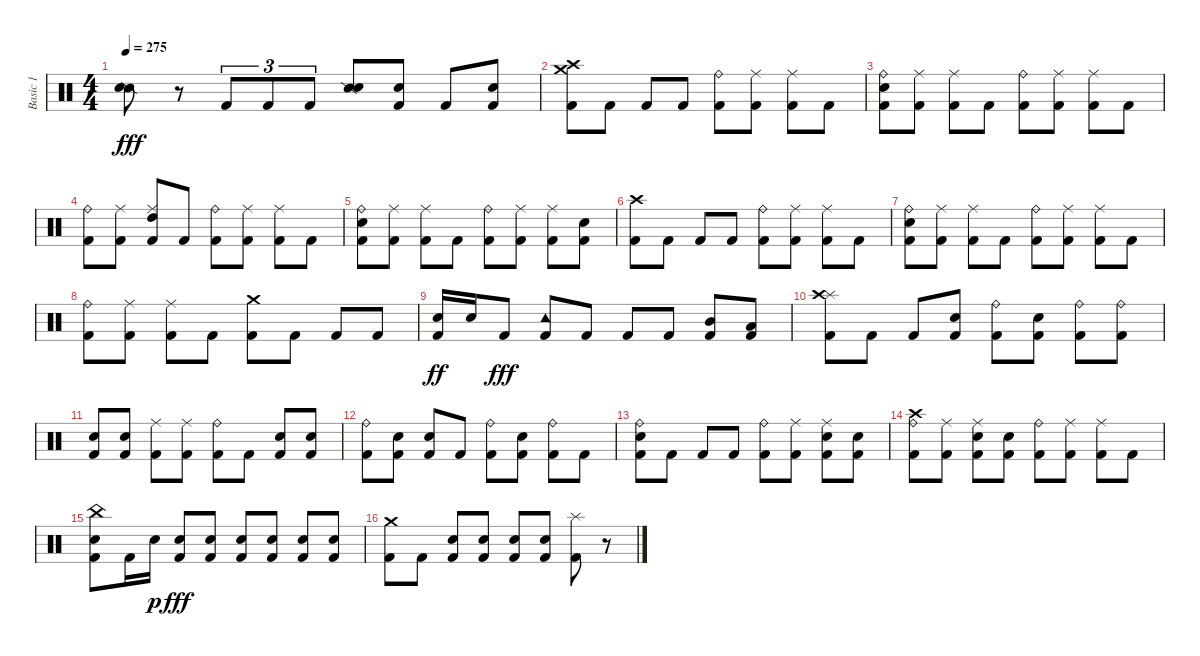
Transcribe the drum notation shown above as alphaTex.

\track ("Basic 1" "Basic 1") {instrument percussion}
\staff {score}
\articulation defaults
\ts (4 4)
\tempo 275
\clef neutral
\ks c
("Snare (side stick) 2" "Snare (hit) 2").8{dy fff} r.8 "Kick (hit) 2".8{tu (3 2)} "Kick (hit) 2".8{tu (3 2)} "Kick (hit) 2".8{tu (3 2)} ("Snare (side stick) 2" "Snare (hit) 2").8 ("Snare (hit) 2" "Kick (hit) 2").8 "Kick (hit) 2".8 ("Kick (hit) 2" "Snare (hit) 2").8 |
("Crash high (hit)" "Kick (hit) 2" "Crash medium (hit)").8 "Kick (hit) 2".8 "Kick (hit) 2".8 "Kick (hit) 2".8 ("Kick (hit) 2" "Ride (bell)").8 ("Ride (middle)" "Kick (hit) 2").8 ("Ride (middle)" "Kick (hit) 2").8 "Kick (hit) 2".8 |
("Kick (hit) 2" "Snare (hit) 2" "Ride (bell)").8 ("Ride (middle)" "Kick (hit) 2").8 ("Ride (middle)" "Kick (hit) 2").8 "Kick (hit) 2".8 ("Kick (hit) 2" "Ride (bell)").8 ("Ride (middle)" "Kick (hit) 2").8 ("Ride (middle)" "Kick (hit) 2").8 "Kick (hit) 2".8 |
("Kick (hit) 2" "Ride (bell)").8 ("Ride (middle)" "Kick (hit) 2").8 ("High Tom (hit)" "Ride (middle)" "Kick (hit) 2").8 "Kick (hit) 2".8 ("Kick (hit) 2" "Ride (bell)").8 ("Ride (middle)" "Kick (hit) 2").8 ("Ride (middle)" "Kick (hit) 2").8 "Kick (hit) 2".8 |
("Kick (hit) 2" "Snare (hit) 2" "Ride (bell)").8 ("Ride (middle)" "Kick (hit) 2").8 ("Ride (middle)" "Kick (hit) 2").8 "Kick (hit) 2".8 ("Kick (hit) 2" "Ride (bell)").8 ("Ride (middle)" "Kick (hit) 2").8 ("Ride (middle)" "Kick (hit) 2").8 ("Snare (hit) 2" "Kick (hit) 2").8 |
("Crash high (hit)" "Kick (hit) 2").8 "Kick (hit) 2".8 "Kick (hit) 2".8 "Kick (hit) 2".8 ("Kick (hit) 2" "Ride (bell)").8 ("Ride (middle)" "Kick (hit) 2").8 ("Ride (middle)" "Kick (hit) 2").8 "Kick (hit) 2".8 |
("Kick (hit) 2" "Snare (hit) 2" "Ride (bell)").8 ("Ride (middle)" "Kick (hit) 2").8 ("Ride (middle)" "Kick (hit) 2").8 "Kick (hit) 2".8 ("Kick (hit) 2" "Ride (bell)").8 ("Ride (middle)" "Kick (hit) 2").8 ("Ride (middle)" "Kick (hit) 2").8 "Kick (hit) 2".8 |
("Kick (hit) 2" "Ride (bell)").8 ("Ride (middle)" "Kick (hit) 2").8 ("Ride (middle)" "Kick (hit) 2").8 "Kick (hit) 2".8 ("Crash medium (hit)" "Kick (hit) 2").8 "Kick (hit) 2".8 "Kick (hit) 2".8 "Kick (hit) 2".8 |
("Kick (hit) 2" "Snare (hit) 2").16{dy ff} "Snare (hit) 2".16 "Kick (hit) 2".8{dy fff} ("Tambourine (hit)" "Kick (hit) 2").8 "Kick (hit) 2".8 "Kick (hit) 2".8 "Kick (hit) 2".8 ("Mid Tom (hit)" "Kick (hit) 2").8 ("Low Tom (hit)" "Kick (hit) 2").8 |
("Splash (hit)" "Crash high (hit)" "Kick (hit) 2").8 "Kick (hit) 2".8 "Kick (hit) 2".8 ("Snare (hit) 2" "Kick (hit) 2").8 ("Kick (hit) 2" "Ride (bell)").8 ("Snare (hit) 2" "Kick (hit) 2").8 ("Ride (bell)" "Kick (hit) 2").8 ("Ride (bell)" "Kick (hit) 2").8 |
("Kick (hit) 2" "Snare (hit) 2").8 ("Snare (hit) 2" "Kick (hit) 2").8 ("Ride (middle)" "Kick (hit) 2").8 ("Ride (middle)" "Kick (hit) 2").8 ("Ride (bell)" "Kick (hit) 2").8 "Kick (hit) 2".8 ("Snare (hit) 2" "Kick (hit) 2").8 ("Snare (hit) 2" "Kick (hit) 2").8 |
("Kick (hit) 2" "Ride (bell)").8 ("Snare (hit) 2" "Kick (hit) 2").8 ("Snare (hit) 2" "Kick (hit) 2").8 "Kick (hit) 2".8 ("Kick (hit) 2" "Ride (bell)").8 ("Snare (hit) 2" "Kick (hit) 2").8 ("Ride (bell)" "Kick (hit) 2").8 "Kick (hit) 2".8 |
("Kick (hit) 2" "Snare (hit) 2" "Ride (bell)").8 "Kick (hit) 2".8 "Kick (hit) 2".8 "Kick (hit) 2".8 ("Kick (hit) 2" "Ride (bell)").8 ("Ride (middle)" "Kick (hit) 2").8 ("Snare (hit) 2" "Ride (middle)" "Kick (hit) 2").8 ("Snare (hit) 2" "Kick (hit) 2").8 |
("Crash high (hit)" "Kick (hit) 2" "Ride (bell)").8 ("Ride (middle)" "Kick (hit) 2").8 ("Snare (hit) 2" "Ride (middle)" "Kick (hit) 2").8 ("Snare (hit) 2" "Kick (hit) 2").8 ("Kick (hit) 2" "Ride (bell)").8 ("Ride (middle)" "Kick (hit) 2").8 ("Ride (middle)" "Kick (hit) 2").8 "Kick (hit) 2".8 |
("China (hit)" "Kick (hit) 2" "Snare (hit) 2").8 "Kick (hit) 2".16 "Snare (hit) 2".16{dy p} ("Snare (hit) 2" "Kick (hit) 2").8{dy fff} ("Snare (hit) 2" "Kick (hit) 2").8 ("Snare (hit) 2" "Kick (hit) 2").8 ("Snare (hit) 2" "Kick (hit) 2").8 ("Snare (hit) 2" "Kick (hit) 2").8 ("Snare (hit) 2" "Kick (hit) 2").8 |
("Crash medium (hit)" "Kick (hit) 2").8 "Kick (hit) 2".8 ("Snare (hit) 2" "Kick (hit) 2").8 ("Snare (hit) 2" "Kick (hit) 2").8 ("Snare (hit) 2" "Kick (hit) 2").8 ("Snare (hit) 2" "Kick (hit) 2").8 ("Splash (hit)" "Kick (hit) 2").8 r.8
